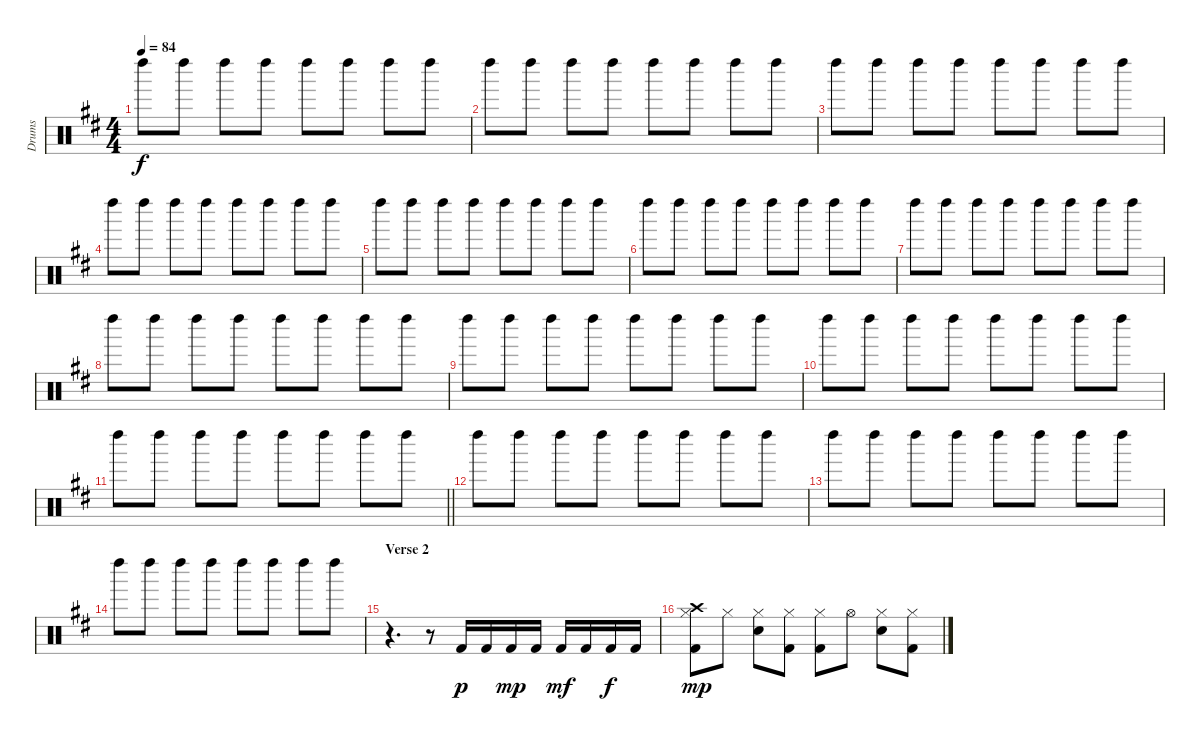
\track ("Drums" "Drums") {instrument percussion}
\staff {score}
\articulation defaults
\ts (4 4)
\tempo 84
\clef neutral
\ks d "Left Maraca (hit)".8{dy f} "Left Maraca (hit)".8 "Left Maraca (hit)".8 "Left Maraca (hit)".8 "Left Maraca (hit)".8 "Left Maraca (hit)".8 "Left Maraca (hit)".8 "Left Maraca (hit)".8
|
"Left Maraca (hit)".8 "Left Maraca (hit)".8 "Left Maraca (hit)".8 "Left Maraca (hit)".8 "Left Maraca (hit)".8 "Left Maraca (hit)".8 "Left Maraca (hit)".8 "Left Maraca (hit)".8 |
"Left Maraca (hit)".8 "Left Maraca (hit)".8 "Left Maraca (hit)".8 "Left Maraca (hit)".8 "Left Maraca (hit)".8 "Left Maraca (hit)".8 "Left Maraca (hit)".8 "Left Maraca (hit)".8 |
"Left Maraca (hit)".8 "Left Maraca (hit)".8 "Left Maraca (hit)".8 "Left Maraca (hit)".8 "Left Maraca (hit)".8 "Left Maraca (hit)".8 "Left Maraca (hit)".8 "Left Maraca (hit)".8 |
"Left Maraca (hit)".8 "Left Maraca (hit)".8 "Left Maraca (hit)".8 "Left Maraca (hit)".8 "Left Maraca (hit)".8 "Left Maraca (hit)".8 "Left Maraca (hit)".8 "Left Maraca (hit)".8 |
"Left Maraca (hit)".8 "Left Maraca (hit)".8 "Left Maraca (hit)".8 "Left Maraca (hit)".8 "Left Maraca (hit)".8 "Left Maraca (hit)".8 "Left Maraca (hit)".8 "Left Maraca (hit)".8 |
"Left Maraca (hit)".8 "Left Maraca (hit)".8 "Left Maraca (hit)".8 "Left Maraca (hit)".8 "Left Maraca (hit)".8 "Left Maraca (hit)".8 "Left Maraca (hit)".8 "Left Maraca (hit)".8 |
"Left Maraca (hit)".8 "Left Maraca (hit)".8 "Left Maraca (hit)".8 "Left Maraca (hit)".8 "Left Maraca (hit)".8 "Left Maraca (hit)".8 "Left Maraca (hit)".8 "Left Maraca (hit)".8 |
"Left Maraca (hit)".8 "Left Maraca (hit)".8 "Left Maraca (hit)".8 "Left Maraca (hit)".8 "Left Maraca (hit)".8 "Left Maraca (hit)".8 "Left Maraca (hit)".8 "Left Maraca (hit)".8 |
"Left Maraca (hit)".8 "Left Maraca (hit)".8 "Left Maraca (hit)".8 "Left Maraca (hit)".8 "Left Maraca (hit)".8 "Left Maraca (hit)".8 "Left Maraca (hit)".8 "Left Maraca (hit)".8 |
\barLineRight lightlight "Left Maraca (hit)".8 "Left Maraca (hit)".8 "Left Maraca (hit)".8 "Left Maraca (hit)".8 "Left Maraca (hit)".8 "Left Maraca (hit)".8 "Left Maraca (hit)".8 "Left Maraca (hit)".8
|
"Left Maraca (hit)".8 "Left Maraca (hit)".8 "Left Maraca (hit)".8 "Left Maraca (hit)".8 "Left Maraca (hit)".8 "Left Maraca (hit)".8 "Left Maraca (hit)".8 "Left Maraca (hit)".8 |
"Left Maraca (hit)".8 "Left Maraca (hit)".8 "Left Maraca (hit)".8 "Left Maraca (hit)".8 "Left Maraca (hit)".8 "Left Maraca (hit)".8 "Left Maraca (hit)".8 "Left Maraca (hit)".8 |
"Left Maraca (hit)".8 "Left Maraca (hit)".8 "Left Maraca (hit)".8 "Left Maraca (hit)".8 "Left Maraca (hit)".8 "Left Maraca (hit)".8 "Left Maraca (hit)".8 "Left Maraca (hit)".8 |
\section ("" "Verse 2")
r.4{d} r.8{volume 10} "Kick (hit) 2".16{dy p} "Kick (hit) 2".16 "Kick (hit) 2".16{dy mp} "Kick (hit) 2".16 "Kick (hit) 2".16{dy mf} "Kick (hit) 2".16 "Kick (hit) 2".16{dy f} "Kick (hit) 2".16 |
("Crash high (hit)" "Hi-Hat (closed)" "Kick (hit) 2").8{dy mp} "Hi-Hat (closed)".8 ("Hi-Hat (closed)" "Snare (hit) 2").8 ("Hi-Hat (closed)" "Kick (hit) 2").8 ("Hi-Hat (closed)" "Kick (hit) 2").8 "Hi-Hat (open)".8 ("Hi-Hat (closed)" "Snare (hit) 2").8 ("Hi-Hat (closed)" "Kick (hit) 2").8
